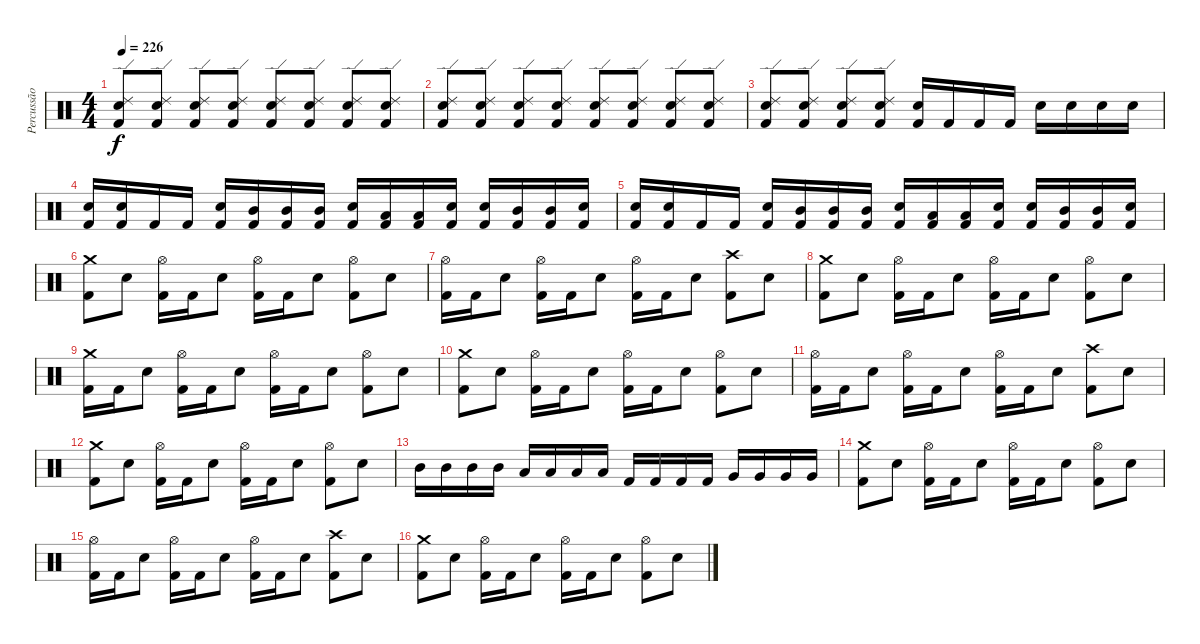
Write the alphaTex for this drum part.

\track ("Percussão" "Percussão") {instrument percussion}
\staff {score}
\articulation defaults
\ts (4 4)
\tempo 226
\clef neutral
\ks c
("Ride (edge) 2" "Electric Snare (hit)" "Kick (hit) 2").8{dy f} ("Ride (edge) 2" "Electric Snare (hit)" "Kick (hit) 2").8 ("Ride (edge) 2" "Electric Snare (hit)" "Kick (hit) 2").8 ("Ride (edge) 2" "Electric Snare (hit)" "Kick (hit) 2").8 ("Ride (edge) 2" "Electric Snare (hit)" "Kick (hit) 2").8 ("Ride (edge) 2" "Electric Snare (hit)" "Kick (hit) 2").8 ("Ride (edge) 2" "Electric Snare (hit)" "Kick (hit) 2").8 ("Ride (edge) 2" "Electric Snare (hit)" "Kick (hit) 2").8 |
("Ride (edge) 2" "Electric Snare (hit)" "Kick (hit) 2").8 ("Ride (edge) 2" "Electric Snare (hit)" "Kick (hit) 2").8 ("Ride (edge) 2" "Electric Snare (hit)" "Kick (hit) 2").8 ("Ride (edge) 2" "Electric Snare (hit)" "Kick (hit) 2").8 ("Ride (edge) 2" "Electric Snare (hit)" "Kick (hit) 2").8 ("Ride (edge) 2" "Electric Snare (hit)" "Kick (hit) 2").8 ("Ride (edge) 2" "Electric Snare (hit)" "Kick (hit) 2").8 ("Ride (edge) 2" "Electric Snare (hit)" "Kick (hit) 2").8 |
("Ride (edge) 2" "Electric Snare (hit)" "Kick (hit) 2").8 ("Ride (edge) 2" "Electric Snare (hit)" "Kick (hit) 2").8 ("Ride (edge) 2" "Electric Snare (hit)" "Kick (hit) 2").8 ("Ride (edge) 2" "Electric Snare (hit)" "Kick (hit) 2").8 ("Electric Snare (hit)" "Kick (hit) 2").16 "Kick (hit) 2".16 "Kick (hit) 2".16 "Kick (hit) 2".16 "Electric Snare (hit)".16 "Electric Snare (hit)".16 "Electric Snare (hit)".16 "Electric Snare (hit)".16 |
("Electric Snare (hit)" "Kick (hit) 2").16 ("Electric Snare (hit)" "Kick (hit) 2").16 "Kick (hit) 2".16 "Kick (hit) 2".16 ("Electric Snare (hit)" "Kick (hit) 2").16 ("Mid Tom (hit)" "Kick (hit) 2").16 ("Mid Tom (hit)" "Kick (hit) 2").16 ("Mid Tom (hit)" "Kick (hit) 2").16 ("Electric Snare (hit)" "Kick (hit) 2").16 ("Low Tom (hit)" "Kick (hit) 2").16 ("Low Tom (hit)" "Kick (hit) 2").16 ("Electric Snare (hit)" "Kick (hit) 2").16 ("Electric Snare (hit)" "Kick (hit) 2").16 ("Mid Tom (hit)" "Kick (hit) 2").16 ("Mid Tom (hit)" "Kick (hit) 2").16 ("Electric Snare (hit)" "Kick (hit) 2").16 |
("Electric Snare (hit)" "Kick (hit) 2").16 ("Electric Snare (hit)" "Kick (hit) 2").16 "Kick (hit) 2".16 "Kick (hit) 2".16 ("Electric Snare (hit)" "Kick (hit) 2").16 ("Mid Tom (hit)" "Kick (hit) 2").16 ("Mid Tom (hit)" "Kick (hit) 2").16 ("Mid Tom (hit)" "Kick (hit) 2").16 ("Electric Snare (hit)" "Kick (hit) 2").16 ("Low Tom (hit)" "Kick (hit) 2").16 ("Low Tom (hit)" "Kick (hit) 2").16 ("Electric Snare (hit)" "Kick (hit) 2").16 ("Electric Snare (hit)" "Kick (hit) 2").16 ("Mid Tom (hit)" "Kick (hit) 2").16 ("Mid Tom (hit)" "Kick (hit) 2").16 ("Electric Snare (hit)" "Kick (hit) 2").16 |
("Crash medium (hit)" "Kick (hit) 2").8 "Electric Snare (hit)".8 ("Hi-Hat (open)" "Kick (hit) 2").16 "Kick (hit) 2".16 "Electric Snare (hit)".8 ("Hi-Hat (open)" "Kick (hit) 2").16 "Kick (hit) 2".16 "Electric Snare (hit)".8 ("Hi-Hat (open)" "Kick (hit) 2").8 "Electric Snare (hit)".8 |
("Hi-Hat (open)" "Kick (hit) 2").16 "Kick (hit) 2".16 "Electric Snare (hit)".8 ("Hi-Hat (open)" "Kick (hit) 2").16 "Kick (hit) 2".16 "Electric Snare (hit)".8 ("Hi-Hat (open)" "Kick (hit) 2").16 "Kick (hit) 2".16 "Electric Snare (hit)".8 ("Crash high (hit)" "Kick (hit) 2").8 "Electric Snare (hit)".8 |
("Crash medium (hit)" "Kick (hit) 2").8 "Electric Snare (hit)".8 ("Hi-Hat (open)" "Kick (hit) 2").16 "Kick (hit) 2".16 "Electric Snare (hit)".8 ("Hi-Hat (open)" "Kick (hit) 2").16 "Kick (hit) 2".16 "Electric Snare (hit)".8 ("Hi-Hat (open)" "Kick (hit) 2").8 "Electric Snare (hit)".8 |
("Crash medium (hit)" "Kick (hit) 2").16 "Kick (hit) 2".16 "Electric Snare (hit)".8 ("Hi-Hat (open)" "Kick (hit) 2").16 "Kick (hit) 2".16 "Electric Snare (hit)".8 ("Hi-Hat (open)" "Kick (hit) 2").16 "Kick (hit) 2".16 "Electric Snare (hit)".8 ("Hi-Hat (open)" "Kick (hit) 2").8 "Electric Snare (hit)".8 |
("Crash medium (hit)" "Kick (hit) 2").8 "Electric Snare (hit)".8 ("Hi-Hat (open)" "Kick (hit) 2").16 "Kick (hit) 2".16 "Electric Snare (hit)".8 ("Hi-Hat (open)" "Kick (hit) 2").16 "Kick (hit) 2".16 "Electric Snare (hit)".8 ("Hi-Hat (open)" "Kick (hit) 2").8 "Electric Snare (hit)".8 |
("Hi-Hat (open)" "Kick (hit) 2").16 "Kick (hit) 2".16 "Electric Snare (hit)".8 ("Hi-Hat (open)" "Kick (hit) 2").16 "Kick (hit) 2".16 "Electric Snare (hit)".8 ("Hi-Hat (open)" "Kick (hit) 2").16 "Kick (hit) 2".16 "Electric Snare (hit)".8 ("Crash high (hit)" "Kick (hit) 2").8 "Electric Snare (hit)".8 |
("Crash medium (hit)" "Kick (hit) 2").8 "Electric Snare (hit)".8 ("Hi-Hat (open)" "Kick (hit) 2").16 "Kick (hit) 2".16 "Electric Snare (hit)".8 ("Hi-Hat (open)" "Kick (hit) 2").16 "Kick (hit) 2".16 "Electric Snare (hit)".8 ("Hi-Hat (open)" "Kick (hit) 2").8 "Electric Snare (hit)".8 |
"Mid Tom (hit)".16 "Mid Tom (hit)".16 "Mid Tom (hit)".16 "Mid Tom (hit)".16 "Low Tom (hit)".16 "Low Tom (hit)".16 "Low Tom (hit)".16 "Low Tom (hit)".16 "Kick (hit) 2".16 "Kick (hit) 2".16 "Kick (hit) 2".16 "Kick (hit) 2".16 "Very Low Tom (hit)".16 "Very Low Tom (hit)".16 "Very Low Tom (hit)".16 "Very Low Tom (hit)".16 |
("Crash medium (hit)" "Kick (hit) 2").8 "Electric Snare (hit)".8 ("Hi-Hat (open)" "Kick (hit) 2").16 "Kick (hit) 2".16 "Electric Snare (hit)".8 ("Hi-Hat (open)" "Kick (hit) 2").16 "Kick (hit) 2".16 "Electric Snare (hit)".8 ("Hi-Hat (open)" "Kick (hit) 2").8 "Electric Snare (hit)".8 |
("Hi-Hat (open)" "Kick (hit) 2").16 "Kick (hit) 2".16 "Electric Snare (hit)".8 ("Hi-Hat (open)" "Kick (hit) 2").16 "Kick (hit) 2".16 "Electric Snare (hit)".8 ("Hi-Hat (open)" "Kick (hit) 2").16 "Kick (hit) 2".16 "Electric Snare (hit)".8 ("Crash high (hit)" "Kick (hit) 2").8 "Electric Snare (hit)".8 |
("Crash medium (hit)" "Kick (hit) 2").8 "Electric Snare (hit)".8 ("Hi-Hat (open)" "Kick (hit) 2").16 "Kick (hit) 2".16 "Electric Snare (hit)".8 ("Hi-Hat (open)" "Kick (hit) 2").16 "Kick (hit) 2".16 "Electric Snare (hit)".8 ("Hi-Hat (open)" "Kick (hit) 2").8 "Electric Snare (hit)".8
